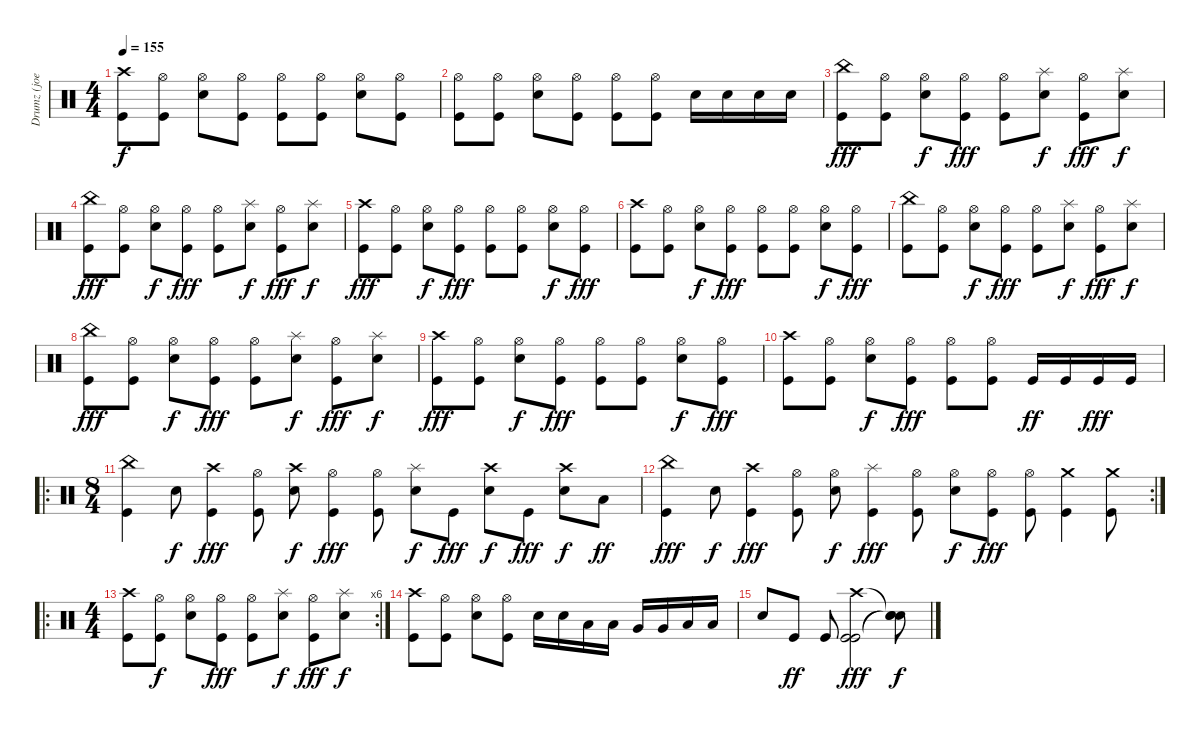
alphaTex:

\track ("Drumz (joey on album)" "Drumz (joe") {instrument percussion}
\staff {score}
\articulation defaults
\ts (4 4)
\tempo 155
\clef neutral
\ks c
("Crash high (hit)" "Kick (hit)").8{dy f} ("Hi-Hat (open)" "Kick (hit)").8 ("Hi-Hat (open)" "Metronome (bell)").8 ("Hi-Hat (open)" "Kick (hit)").8 ("Hi-Hat (open)" "Kick (hit)").8 ("Hi-Hat (open)" "Kick (hit)").8 ("Hi-Hat (open)" "Metronome (bell)").8 ("Hi-Hat (open)" "Kick (hit)").8 |
("Hi-Hat (open)" "Kick (hit)").8 ("Hi-Hat (open)" "Kick (hit)").8 ("Hi-Hat (open)" "Metronome (bell)").8 ("Hi-Hat (open)" "Kick (hit)").8 ("Hi-Hat (open)" "Kick (hit)").8 ("Hi-Hat (open)" "Kick (hit)").8 "Metronome (bell)".16 "Metronome (bell)".16 "Metronome (bell)".16 "Metronome (bell)".16 |
("China (hit)" "Kick (hit)").8{dy fff} ("Hi-Hat (open)" "Kick (hit)").8 ("Hi-Hat (open)" "Metronome (bell)").8{dy f} ("Hi-Hat (open)" "Kick (hit)").8{dy fff} ("Hi-Hat (open)" "Kick (hit)").8 ("Splash (hit)" "Metronome (bell)").8{dy f} ("Hi-Hat (open)" "Kick (hit)").8{dy fff} ("Splash (hit)" "Metronome (bell)").8{dy f} |
("China (hit)" "Kick (hit)").8{dy fff} ("Hi-Hat (open)" "Kick (hit)").8 ("Hi-Hat (open)" "Metronome (bell)").8{dy f} ("Hi-Hat (open)" "Kick (hit)").8{dy fff} ("Hi-Hat (open)" "Kick (hit)").8 ("Splash (hit)" "Metronome (bell)").8{dy f} ("Hi-Hat (open)" "Kick (hit)").8{dy fff} ("Splash (hit)" "Metronome (bell)").8{dy f} |
("Crash high (hit)" "Kick (hit)").8{dy fff} ("Hi-Hat (open)" "Kick (hit)").8 ("Hi-Hat (open)" "Metronome (bell)").8{dy f} ("Hi-Hat (open)" "Kick (hit)").8{dy fff} ("Hi-Hat (open)" "Kick (hit)").8 ("Hi-Hat (open)" "Kick (hit)").8 ("Hi-Hat (open)" "Metronome (bell)").8{dy f} ("Hi-Hat (open)" "Kick (hit)").8{dy fff} |
("Crash high (hit)" "Kick (hit)").8 ("Hi-Hat (open)" "Kick (hit)").8 ("Hi-Hat (open)" "Metronome (bell)").8{dy f} ("Hi-Hat (open)" "Kick (hit)").8{dy fff} ("Hi-Hat (open)" "Kick (hit)").8 ("Hi-Hat (open)" "Kick (hit)").8 ("Hi-Hat (open)" "Metronome (bell)").8{dy f} ("Hi-Hat (open)" "Kick (hit)").8{dy fff} |
("China (hit)" "Kick (hit)").8 ("Hi-Hat (open)" "Kick (hit)").8 ("Hi-Hat (open)" "Metronome (bell)").8{dy f} ("Hi-Hat (open)" "Kick (hit)").8{dy fff} ("Hi-Hat (open)" "Kick (hit)").8 ("Splash (hit)" "Metronome (bell)").8{dy f} ("Hi-Hat (open)" "Kick (hit)").8{dy fff} ("Splash (hit)" "Metronome (bell)").8{dy f} |
("China (hit)" "Kick (hit)").8{dy fff} ("Hi-Hat (open)" "Kick (hit)").8 ("Hi-Hat (open)" "Metronome (bell)").8{dy f} ("Hi-Hat (open)" "Kick (hit)").8{dy fff} ("Hi-Hat (open)" "Kick (hit)").8 ("Splash (hit)" "Metronome (bell)").8{dy f} ("Hi-Hat (open)" "Kick (hit)").8{dy fff} ("Splash (hit)" "Metronome (bell)").8{dy f} |
("Crash high (hit)" "Kick (hit)").8{dy fff} ("Hi-Hat (open)" "Kick (hit)").8 ("Hi-Hat (open)" "Metronome (bell)").8{dy f} ("Hi-Hat (open)" "Kick (hit)").8{dy fff} ("Hi-Hat (open)" "Kick (hit)").8 ("Hi-Hat (open)" "Kick (hit)").8 ("Hi-Hat (open)" "Metronome (bell)").8{dy f} ("Hi-Hat (open)" "Kick (hit)").8{dy fff} |
("Crash high (hit)" "Kick (hit)").8 ("Hi-Hat (open)" "Kick (hit)").8 ("Hi-Hat (open)" "Metronome (bell)").8{dy f} ("Hi-Hat (open)" "Kick (hit)").8{dy fff} ("Hi-Hat (open)" "Kick (hit)").8 ("Hi-Hat (open)" "Kick (hit)").8 "Kick (hit)".16{dy ff} "Kick (hit)".16 "Kick (hit)".16{dy fff} "Kick (hit)".16 |
\ro
\ts (8 4)
("China (hit)" "Kick (hit)").4 "Metronome (bell)".8{dy f} ("Crash high (hit)" "Kick (hit)").4{dy fff} ("Hi-Hat (open)" "Kick (hit)").8 ("Crash high (hit)" "Metronome (bell)").8{dy f} ("Hi-Hat (open)" "Kick (hit)").4{dy fff} ("Hi-Hat (open)" "Kick (hit)").8 ("Splash (hit)" "Metronome (bell)").8{dy f} "Kick (hit)".8{dy fff} ("Crash high (hit)" "Metronome (bell)").8{dy f} "Kick (hit)".8{dy fff} ("Crash high (hit)" "Metronome (bell)").8{dy f} "Low Tom (hit)".8{dy ff} |
\rc 2
("China (hit)" "Kick (hit)").4{dy fff} "Metronome (bell)".8{dy f} ("Crash high (hit)" "Kick (hit)").4{dy fff} ("Hi-Hat (open)" "Kick (hit)").8 ("Hi-Hat (open)" "Metronome (bell)").8{dy f} ("Splash (hit)" "Kick (hit)").4{dy fff} ("Hi-Hat (open)" "Kick (hit)").8 ("Hi-Hat (open)" "Metronome (bell)").8{dy f} ("Hi-Hat (open)" "Kick (hit)").8{dy fff} ("Hi-Hat (open)" "Kick (hit)").8 ("Crash medium (hit)" "Kick (hit)").4 ("Crash medium (hit)" "Kick (hit)").8 |
\ro
\rc 6
\ts (4 4)
("Crash high (hit)" "Kick (hit)").8 ("Hi-Hat (open)" "Kick (hit)").8{dy f} ("Hi-Hat (open)" "Metronome (bell)").8 ("Hi-Hat (open)" "Kick (hit)").8{dy fff} ("Hi-Hat (open)" "Kick (hit)").8 ("Splash (hit)" "Metronome (bell)").8{dy f} ("Hi-Hat (open)" "Kick (hit)").8{dy fff} ("Splash (hit)" "Metronome (bell)").8{dy f} |
("Crash high (hit)" "Kick (hit)").8 ("Hi-Hat (open)" "Kick (hit)").8 ("Hi-Hat (open)" "Metronome (bell)").8 ("Hi-Hat (open)" "Kick (hit)").8 "Metronome (bell)".16 "Metronome (bell)".16 "Low Tom (hit)".16 "Low Tom (hit)".16 "Very Low Tom (hit)".16 "Very Low Tom (hit)".16 "Low Floor Tom (hit)".16 "Low Floor Tom (hit)".16 |
"Metronome (bell)".8 "Kick (hit)".8{dy ff} "Kick (hit)".8 ("Crash high (hit)" "Kick (hit)" "Kick (hit)").2{dy fff} ("Snare (hit)"{t} "Snare (hit)"{t} "Snare (hit)"{t}).8{dy f}
